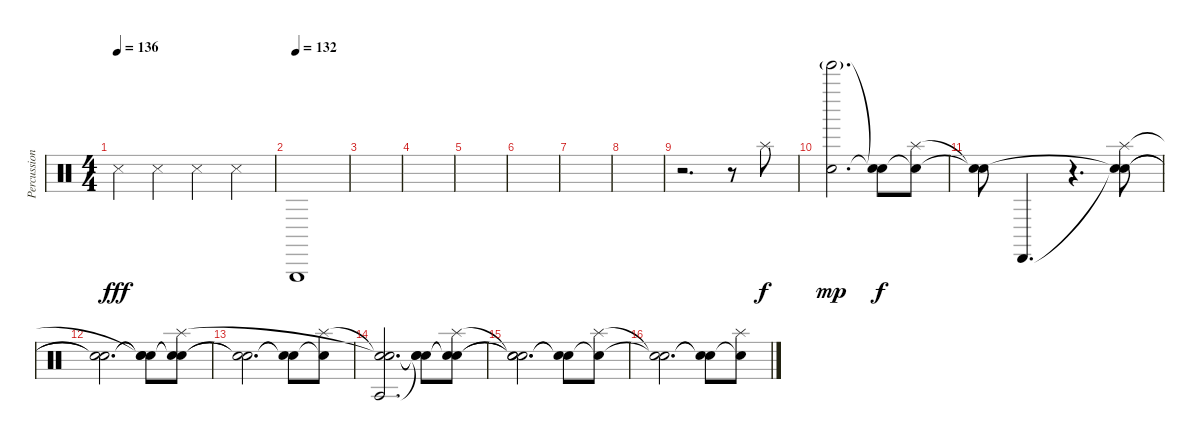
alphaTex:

\track ("Percussion / FX" "Percussion") {instrument percussion}
\staff {score}
\articulation defaults
\ts (4 4)
\tempo 136
\clef neutral
\ks c "Metronome (hit)".4{dy fff} "Snare (side stick) 3".4 "Metronome (hit)".4 "Snare (side stick) 3".4
|
\tempo (132)
"Triangle (hit)".1{volume 14} |
|
|
|
|
|
|
r.2{d volume 5} r.8 "Splash (hit)".8{dy f} |
("Tinkle Bell (hit)"{g} "Snare (hit)").2{d dy mp volume 10} ("Snare (hit)"{t} "Snare (hit)"{t}).8{dy f} ("Snare (hit)"{t} "Splash (hit)").8 |
("Snare (hit)"{t} "Snare (hit)"{t}).8 "Cabasa (hit)".4{d} r.4{d} ("Snare (hit)"{t} "Snare (hit)"{t} "Splash (hit)").8 |
("Snare (hit)"{t} "Snare (hit)"{t}).2{d} ("Snare (hit)"{t} "Snare (hit)"{t} "Snare (hit)"{t}).8 ("Snare (hit)"{t} "Snare (hit)"{t} "Splash (hit)").8 |
("Snare (hit)"{t} "Snare (hit)"{t}).2{d} ("Snare (hit)"{t} "Snare (hit)"{t}).8 ("Snare (hit)"{t} "Splash (hit)").8 |
("Agogo tow (hit)" "Snare (hit)"{t} "Snare (hit)"{t}).2{d} ("Snare (hit)"{t} "Snare (hit)"{t} "Snare (hit)"{t}).8 ("Snare (hit)"{t} "Snare (hit)"{t} "Splash (hit)").8 |
("Snare (hit)"{t} "Snare (hit)"{t} "Snare (hit)"{t}).2{d} ("Snare (hit)"{t} "Snare (hit)"{t}).8 ("Snare (hit)"{t} "Splash (hit)").8 |
("Snare (hit)"{t} "Snare (hit)"{t}).2{d} ("Snare (hit)"{t} "Snare (hit)"{t}).8 ("Snare (hit)"{t} "Splash (hit)").8
